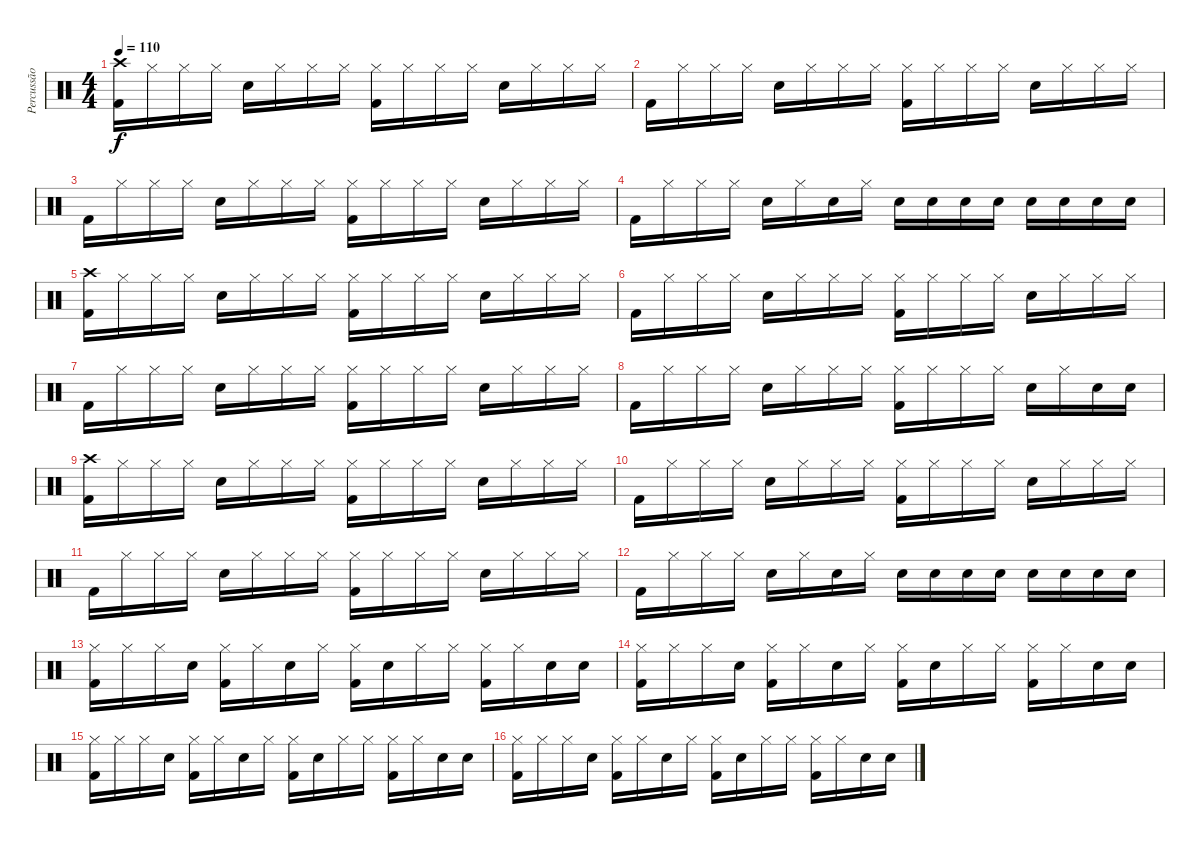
\track ("Percussão" "Percussão") {instrument percussion}
\staff {score}
\articulation defaults
\ts (4 4)
\tempo 110
\clef neutral
\ks c
("Crash high (hit)" "Kick (hit) 2").16{dy f} "Hi-Hat (closed)".16 "Hi-Hat (closed)".16 "Hi-Hat (closed)".16 "Electric Snare (hit)".16 "Hi-Hat (closed)".16 "Hi-Hat (closed)".16 "Hi-Hat (closed)".16 ("Hi-Hat (closed)" "Kick (hit) 2").16 "Hi-Hat (closed)".16 "Hi-Hat (closed)".16 "Hi-Hat (closed)".16 "Electric Snare (hit)".16 "Hi-Hat (closed)".16 "Hi-Hat (closed)".16 "Hi-Hat (closed)".16 |
"Kick (hit) 2".16 "Hi-Hat (closed)".16 "Hi-Hat (closed)".16 "Hi-Hat (closed)".16 "Electric Snare (hit)".16 "Hi-Hat (closed)".16 "Hi-Hat (closed)".16 "Hi-Hat (closed)".16 ("Hi-Hat (closed)" "Kick (hit) 2").16 "Hi-Hat (closed)".16 "Hi-Hat (closed)".16 "Hi-Hat (closed)".16 "Electric Snare (hit)".16 "Hi-Hat (closed)".16 "Hi-Hat (closed)".16 "Hi-Hat (closed)".16 |
"Kick (hit) 2".16 "Hi-Hat (closed)".16 "Hi-Hat (closed)".16 "Hi-Hat (closed)".16 "Electric Snare (hit)".16 "Hi-Hat (closed)".16 "Hi-Hat (closed)".16 "Hi-Hat (closed)".16 ("Hi-Hat (closed)" "Kick (hit) 2").16 "Hi-Hat (closed)".16 "Hi-Hat (closed)".16 "Hi-Hat (closed)".16 "Electric Snare (hit)".16 "Hi-Hat (closed)".16 "Hi-Hat (closed)".16 "Hi-Hat (closed)".16 |
"Kick (hit) 2".16 "Hi-Hat (closed)".16 "Hi-Hat (closed)".16 "Hi-Hat (closed)".16 "Electric Snare (hit)".16 "Hi-Hat (closed)".16 "Electric Snare (hit)".16 "Hi-Hat (closed)".16 "Electric Snare (hit)".16 "Electric Snare (hit)".16 "Electric Snare (hit)".16 "Electric Snare (hit)".16 "Electric Snare (hit)".16 "Electric Snare (hit)".16 "Electric Snare (hit)".16 "Electric Snare (hit)".16 |
("Crash high (hit)" "Kick (hit) 2").16 "Hi-Hat (closed)".16 "Hi-Hat (closed)".16 "Hi-Hat (closed)".16 "Electric Snare (hit)".16 "Hi-Hat (closed)".16 "Hi-Hat (closed)".16 "Hi-Hat (closed)".16 ("Hi-Hat (closed)" "Kick (hit) 2").16 "Hi-Hat (closed)".16 "Hi-Hat (closed)".16 "Hi-Hat (closed)".16 "Electric Snare (hit)".16 "Hi-Hat (closed)".16 "Hi-Hat (closed)".16 "Hi-Hat (closed)".16 |
"Kick (hit) 2".16 "Hi-Hat (closed)".16 "Hi-Hat (closed)".16 "Hi-Hat (closed)".16 "Electric Snare (hit)".16 "Hi-Hat (closed)".16 "Hi-Hat (closed)".16 "Hi-Hat (closed)".16 ("Hi-Hat (closed)" "Kick (hit) 2").16 "Hi-Hat (closed)".16 "Hi-Hat (closed)".16 "Hi-Hat (closed)".16 "Electric Snare (hit)".16 "Hi-Hat (closed)".16 "Hi-Hat (closed)".16 "Hi-Hat (closed)".16 |
"Kick (hit) 2".16 "Hi-Hat (closed)".16 "Hi-Hat (closed)".16 "Hi-Hat (closed)".16 "Electric Snare (hit)".16 "Hi-Hat (closed)".16 "Hi-Hat (closed)".16 "Hi-Hat (closed)".16 ("Hi-Hat (closed)" "Kick (hit) 2").16 "Hi-Hat (closed)".16 "Hi-Hat (closed)".16 "Hi-Hat (closed)".16 "Electric Snare (hit)".16 "Hi-Hat (closed)".16 "Hi-Hat (closed)".16 "Hi-Hat (closed)".16 |
"Kick (hit) 2".16 "Hi-Hat (closed)".16 "Hi-Hat (closed)".16 "Hi-Hat (closed)".16 "Electric Snare (hit)".16 "Hi-Hat (closed)".16 "Hi-Hat (closed)".16 "Hi-Hat (closed)".16 ("Hi-Hat (closed)" "Kick (hit) 2").16 "Hi-Hat (closed)".16 "Hi-Hat (closed)".16 "Hi-Hat (closed)".16 "Electric Snare (hit)".16 "Hi-Hat (closed)".16 "Electric Snare (hit)".16 "Electric Snare (hit)".16 |
("Crash high (hit)" "Kick (hit) 2").16 "Hi-Hat (closed)".16 "Hi-Hat (closed)".16 "Hi-Hat (closed)".16 "Electric Snare (hit)".16 "Hi-Hat (closed)".16 "Hi-Hat (closed)".16 "Hi-Hat (closed)".16 ("Hi-Hat (closed)" "Kick (hit) 2").16 "Hi-Hat (closed)".16 "Hi-Hat (closed)".16 "Hi-Hat (closed)".16 "Electric Snare (hit)".16 "Hi-Hat (closed)".16 "Hi-Hat (closed)".16 "Hi-Hat (closed)".16 |
"Kick (hit) 2".16 "Hi-Hat (closed)".16 "Hi-Hat (closed)".16 "Hi-Hat (closed)".16 "Electric Snare (hit)".16 "Hi-Hat (closed)".16 "Hi-Hat (closed)".16 "Hi-Hat (closed)".16 ("Hi-Hat (closed)" "Kick (hit) 2").16 "Hi-Hat (closed)".16 "Hi-Hat (closed)".16 "Hi-Hat (closed)".16 "Electric Snare (hit)".16 "Hi-Hat (closed)".16 "Hi-Hat (closed)".16 "Hi-Hat (closed)".16 |
"Kick (hit) 2".16 "Hi-Hat (closed)".16 "Hi-Hat (closed)".16 "Hi-Hat (closed)".16 "Electric Snare (hit)".16 "Hi-Hat (closed)".16 "Hi-Hat (closed)".16 "Hi-Hat (closed)".16 ("Hi-Hat (closed)" "Kick (hit) 2").16 "Hi-Hat (closed)".16 "Hi-Hat (closed)".16 "Hi-Hat (closed)".16 "Electric Snare (hit)".16 "Hi-Hat (closed)".16 "Hi-Hat (closed)".16 "Hi-Hat (closed)".16 |
"Kick (hit) 2".16 "Hi-Hat (closed)".16 "Hi-Hat (closed)".16 "Hi-Hat (closed)".16 "Electric Snare (hit)".16 "Hi-Hat (closed)".16 "Electric Snare (hit)".16 "Hi-Hat (closed)".16 "Electric Snare (hit)".16 "Electric Snare (hit)".16 "Electric Snare (hit)".16 "Electric Snare (hit)".16 "Electric Snare (hit)".16 "Electric Snare (hit)".16 "Electric Snare (hit)".16 "Electric Snare (hit)".16 |
("Hi-Hat (closed)" "Kick (hit) 2").16 "Hi-Hat (closed)".16 "Hi-Hat (closed)".16 "Electric Snare (hit)".16 ("Hi-Hat (closed)" "Kick (hit) 2").16 "Hi-Hat (closed)".16 "Electric Snare (hit)".16 "Hi-Hat (closed)".16 ("Hi-Hat (closed)" "Kick (hit) 2").16 "Electric Snare (hit)".16 "Hi-Hat (closed)".16 "Hi-Hat (closed)".16 ("Hi-Hat (closed)" "Kick (hit) 2").16 "Hi-Hat (closed)".16 "Electric Snare (hit)".16 "Electric Snare (hit)".16 |
("Hi-Hat (closed)" "Kick (hit) 2").16 "Hi-Hat (closed)".16 "Hi-Hat (closed)".16 "Electric Snare (hit)".16 ("Hi-Hat (closed)" "Kick (hit) 2").16 "Hi-Hat (closed)".16 "Electric Snare (hit)".16 "Hi-Hat (closed)".16 ("Hi-Hat (closed)" "Kick (hit) 2").16 "Electric Snare (hit)".16 "Hi-Hat (closed)".16 "Hi-Hat (closed)".16 ("Hi-Hat (closed)" "Kick (hit) 2").16 "Hi-Hat (closed)".16 "Electric Snare (hit)".16 "Electric Snare (hit)".16 |
("Hi-Hat (closed)" "Kick (hit) 2").16 "Hi-Hat (closed)".16 "Hi-Hat (closed)".16 "Electric Snare (hit)".16 ("Hi-Hat (closed)" "Kick (hit) 2").16 "Hi-Hat (closed)".16 "Electric Snare (hit)".16 "Hi-Hat (closed)".16 ("Hi-Hat (closed)" "Kick (hit) 2").16 "Electric Snare (hit)".16 "Hi-Hat (closed)".16 "Hi-Hat (closed)".16 ("Hi-Hat (closed)" "Kick (hit) 2").16 "Hi-Hat (closed)".16 "Electric Snare (hit)".16 "Electric Snare (hit)".16 |
("Hi-Hat (closed)" "Kick (hit) 2").16 "Hi-Hat (closed)".16 "Hi-Hat (closed)".16 "Electric Snare (hit)".16 ("Hi-Hat (closed)" "Kick (hit) 2").16 "Hi-Hat (closed)".16 "Electric Snare (hit)".16 "Hi-Hat (closed)".16 ("Hi-Hat (closed)" "Kick (hit) 2").16 "Electric Snare (hit)".16 "Hi-Hat (closed)".16 "Hi-Hat (closed)".16 ("Hi-Hat (closed)" "Kick (hit) 2").16 "Hi-Hat (closed)".16 "Electric Snare (hit)".16 "Electric Snare (hit)".16
